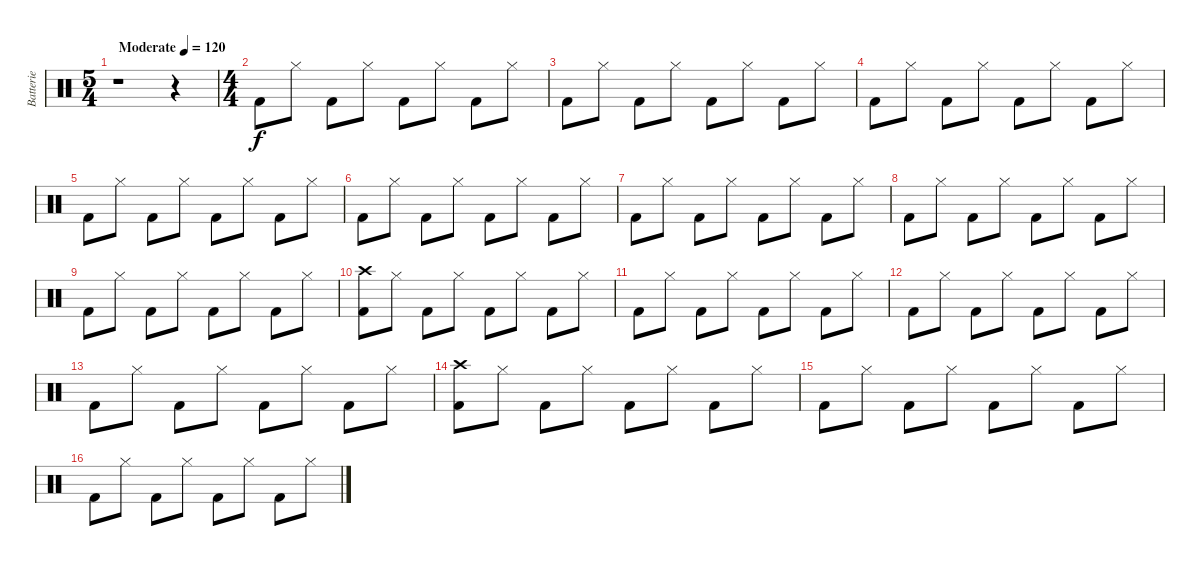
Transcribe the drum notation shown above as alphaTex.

\track ("Batterie" "Batterie") {instrument percussion}
\staff {score}
\articulation defaults
\ts (5 4)
\tempo (120 "Moderate")
\clef neutral
\ks c
r.1{dy f} r.4 |
\ts (4 4)
"Kick (hit) 2".8 "Hi-Hat (closed)".8 "Kick (hit) 2".8 "Hi-Hat (closed)".8 "Kick (hit) 2".8 "Hi-Hat (closed)".8 "Kick (hit) 2".8 "Hi-Hat (closed)".8 |
"Kick (hit) 2".8 "Hi-Hat (closed)".8 "Kick (hit) 2".8 "Hi-Hat (closed)".8 "Kick (hit) 2".8 "Hi-Hat (closed)".8 "Kick (hit) 2".8 "Hi-Hat (closed)".8 |
"Kick (hit) 2".8 "Hi-Hat (closed)".8 "Kick (hit) 2".8 "Hi-Hat (closed)".8 "Kick (hit) 2".8 "Hi-Hat (closed)".8 "Kick (hit) 2".8 "Hi-Hat (closed)".8 |
"Kick (hit) 2".8 "Hi-Hat (closed)".8 "Kick (hit) 2".8 "Hi-Hat (closed)".8 "Kick (hit) 2".8 "Hi-Hat (closed)".8 "Kick (hit) 2".8 "Hi-Hat (closed)".8 |
"Kick (hit) 2".8 "Hi-Hat (closed)".8 "Kick (hit) 2".8 "Hi-Hat (closed)".8 "Kick (hit) 2".8 "Hi-Hat (closed)".8 "Kick (hit) 2".8 "Hi-Hat (closed)".8 |
"Kick (hit) 2".8 "Hi-Hat (closed)".8 "Kick (hit) 2".8 "Hi-Hat (closed)".8 "Kick (hit) 2".8 "Hi-Hat (closed)".8 "Kick (hit) 2".8 "Hi-Hat (closed)".8 |
"Kick (hit) 2".8 "Hi-Hat (closed)".8 "Kick (hit) 2".8 "Hi-Hat (closed)".8 "Kick (hit) 2".8 "Hi-Hat (closed)".8 "Kick (hit) 2".8 "Hi-Hat (closed)".8 |
"Kick (hit) 2".8 "Hi-Hat (closed)".8 "Kick (hit) 2".8 "Hi-Hat (closed)".8 "Kick (hit) 2".8 "Hi-Hat (closed)".8 "Kick (hit) 2".8 "Hi-Hat (closed)".8 |
("Kick (hit) 2" "Crash high (hit)").8 "Hi-Hat (closed)".8 "Kick (hit) 2".8 "Hi-Hat (closed)".8 "Kick (hit) 2".8 "Hi-Hat (closed)".8 "Kick (hit) 2".8 "Hi-Hat (closed)".8 |
"Kick (hit) 2".8 "Hi-Hat (closed)".8 "Kick (hit) 2".8 "Hi-Hat (closed)".8 "Kick (hit) 2".8 "Hi-Hat (closed)".8 "Kick (hit) 2".8 "Hi-Hat (closed)".8 |
"Kick (hit) 2".8 "Hi-Hat (closed)".8 "Kick (hit) 2".8 "Hi-Hat (closed)".8 "Kick (hit) 2".8 "Hi-Hat (closed)".8 "Kick (hit) 2".8 "Hi-Hat (closed)".8 |
"Kick (hit) 2".8 "Hi-Hat (closed)".8 "Kick (hit) 2".8 "Hi-Hat (closed)".8 "Kick (hit) 2".8 "Hi-Hat (closed)".8 "Kick (hit) 2".8 "Hi-Hat (closed)".8 |
("Kick (hit) 2" "Crash high (hit)").8 "Hi-Hat (closed)".8 "Kick (hit) 2".8 "Hi-Hat (closed)".8 "Kick (hit) 2".8 "Hi-Hat (closed)".8 "Kick (hit) 2".8 "Hi-Hat (closed)".8 |
"Kick (hit) 2".8 "Hi-Hat (closed)".8 "Kick (hit) 2".8 "Hi-Hat (closed)".8 "Kick (hit) 2".8 "Hi-Hat (closed)".8 "Kick (hit) 2".8 "Hi-Hat (closed)".8 |
"Kick (hit) 2".8 "Hi-Hat (closed)".8 "Kick (hit) 2".8 "Hi-Hat (closed)".8 "Kick (hit) 2".8 "Hi-Hat (closed)".8 "Kick (hit) 2".8 "Hi-Hat (closed)".8
